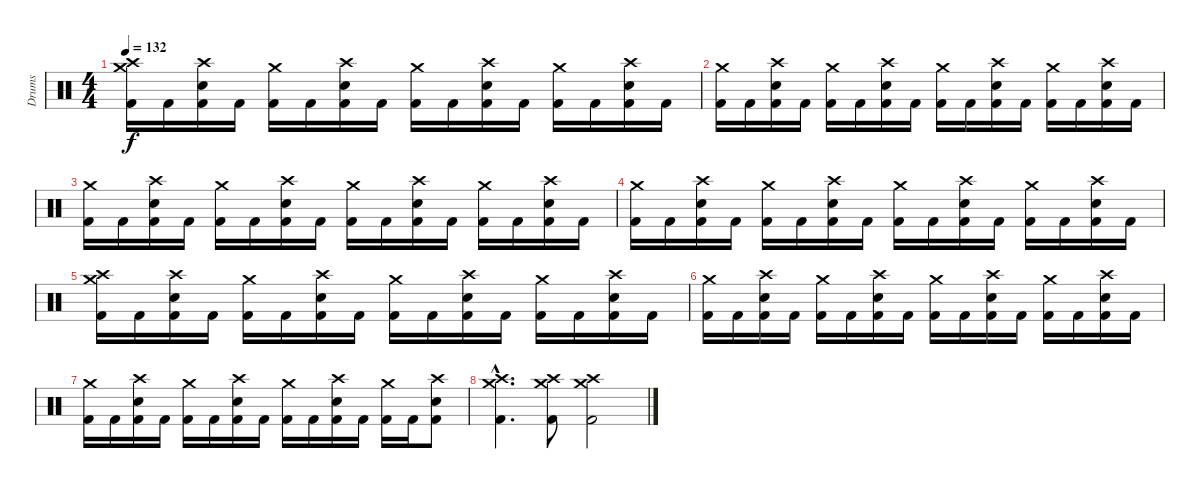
\track ("Drums" "Drums") {instrument percussion}
\staff {score}
\articulation defaults
\ts (4 4)
\tempo 132
\clef neutral
\ks c
("Crash high (hit)" "Crash medium (hit)" "Kick (hit) 2").16{dy f} "Kick (hit) 2".16 ("Crash high (hit)" "Kick (hit) 2" "Electric Snare (hit)").16 "Kick (hit) 2".16 ("Crash medium (hit)" "Kick (hit) 2").16 "Kick (hit) 2".16 ("Crash high (hit)" "Kick (hit) 2" "Electric Snare (hit)").16 "Kick (hit) 2".16 ("Crash medium (hit)" "Kick (hit) 2").16 "Kick (hit) 2".16 ("Crash high (hit)" "Kick (hit) 2" "Electric Snare (hit)").16 "Kick (hit) 2".16 ("Crash medium (hit)" "Kick (hit) 2").16 "Kick (hit) 2".16 ("Crash high (hit)" "Kick (hit) 2" "Electric Snare (hit)").16 "Kick (hit) 2".16 |
("Crash medium (hit)" "Kick (hit) 2").16 "Kick (hit) 2".16 ("Crash high (hit)" "Kick (hit) 2" "Electric Snare (hit)").16 "Kick (hit) 2".16 ("Crash medium (hit)" "Kick (hit) 2").16 "Kick (hit) 2".16 ("Crash high (hit)" "Kick (hit) 2" "Electric Snare (hit)").16 "Kick (hit) 2".16 ("Crash medium (hit)" "Kick (hit) 2").16 "Kick (hit) 2".16 ("Crash high (hit)" "Kick (hit) 2" "Electric Snare (hit)").16 "Kick (hit) 2".16 ("Crash medium (hit)" "Kick (hit) 2").16 "Kick (hit) 2".16 ("Crash high (hit)" "Kick (hit) 2" "Electric Snare (hit)").16 "Kick (hit) 2".16 |
("Crash medium (hit)" "Kick (hit) 2").16 "Kick (hit) 2".16 ("Crash high (hit)" "Kick (hit) 2" "Electric Snare (hit)").16 "Kick (hit) 2".16 ("Crash medium (hit)" "Kick (hit) 2").16 "Kick (hit) 2".16 ("Crash high (hit)" "Kick (hit) 2" "Electric Snare (hit)").16 "Kick (hit) 2".16 ("Crash medium (hit)" "Kick (hit) 2").16 "Kick (hit) 2".16 ("Crash high (hit)" "Kick (hit) 2" "Electric Snare (hit)").16 "Kick (hit) 2".16 ("Crash medium (hit)" "Kick (hit) 2").16 "Kick (hit) 2".16 ("Crash high (hit)" "Kick (hit) 2" "Electric Snare (hit)").16 "Kick (hit) 2".16 |
("Crash medium (hit)" "Kick (hit) 2").16 "Kick (hit) 2".16 ("Crash high (hit)" "Kick (hit) 2" "Electric Snare (hit)").16 "Kick (hit) 2".16 ("Crash medium (hit)" "Kick (hit) 2").16 "Kick (hit) 2".16 ("Crash high (hit)" "Kick (hit) 2" "Electric Snare (hit)").16 "Kick (hit) 2".16 ("Crash medium (hit)" "Kick (hit) 2").16 "Kick (hit) 2".16 ("Crash high (hit)" "Kick (hit) 2" "Electric Snare (hit)").16 "Kick (hit) 2".16 ("Crash medium (hit)" "Kick (hit) 2").16 "Kick (hit) 2".16 ("Crash high (hit)" "Kick (hit) 2" "Electric Snare (hit)").16 "Kick (hit) 2".16 |
("Crash high (hit)" "Crash medium (hit)" "Kick (hit) 2").16 "Kick (hit) 2".16 ("Crash high (hit)" "Kick (hit) 2" "Electric Snare (hit)").16 "Kick (hit) 2".16 ("Crash medium (hit)" "Kick (hit) 2").16 "Kick (hit) 2".16 ("Crash high (hit)" "Kick (hit) 2" "Electric Snare (hit)").16 "Kick (hit) 2".16 ("Crash medium (hit)" "Kick (hit) 2").16 "Kick (hit) 2".16 ("Crash high (hit)" "Kick (hit) 2" "Electric Snare (hit)").16 "Kick (hit) 2".16 ("Crash medium (hit)" "Kick (hit) 2").16 "Kick (hit) 2".16 ("Crash high (hit)" "Kick (hit) 2" "Electric Snare (hit)").16 "Kick (hit) 2".16 |
("Crash medium (hit)" "Kick (hit) 2").16 "Kick (hit) 2".16 ("Crash high (hit)" "Kick (hit) 2" "Electric Snare (hit)").16 "Kick (hit) 2".16 ("Crash medium (hit)" "Kick (hit) 2").16 "Kick (hit) 2".16 ("Crash high (hit)" "Kick (hit) 2" "Electric Snare (hit)").16 "Kick (hit) 2".16 ("Crash medium (hit)" "Kick (hit) 2").16 "Kick (hit) 2".16 ("Crash high (hit)" "Kick (hit) 2" "Electric Snare (hit)").16 "Kick (hit) 2".16 ("Crash medium (hit)" "Kick (hit) 2").16 "Kick (hit) 2".16 ("Crash high (hit)" "Kick (hit) 2" "Electric Snare (hit)").16 "Kick (hit) 2".16 |
("Crash medium (hit)" "Kick (hit) 2").16 "Kick (hit) 2".16 ("Crash high (hit)" "Kick (hit) 2" "Electric Snare (hit)").16 "Kick (hit) 2".16 ("Crash medium (hit)" "Kick (hit) 2").16 "Kick (hit) 2".16 ("Crash high (hit)" "Kick (hit) 2" "Electric Snare (hit)").16 "Kick (hit) 2".16 ("Crash medium (hit)" "Kick (hit) 2").16 "Kick (hit) 2".16 ("Crash high (hit)" "Kick (hit) 2" "Electric Snare (hit)").16 "Kick (hit) 2".16 ("Crash medium (hit)" "Kick (hit) 2").16 "Kick (hit) 2".16 ("Crash high (hit)" "Kick (hit) 2" "Electric Snare (hit)").8 |
("Crash high (hit)"{hac} "Crash medium (hit)"{hac} "Kick (hit) 2"{hac}).4{d} ("Crash high (hit)" "Crash medium (hit)" "Kick (hit) 2").8 ("Crash medium (hit)" "Crash high (hit)" "Kick (hit) 2").2
